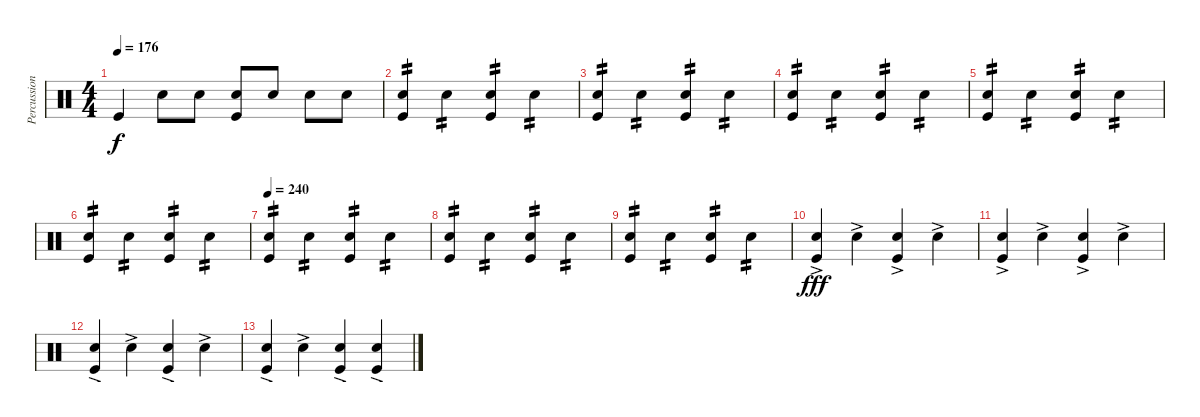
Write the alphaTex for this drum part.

\track ("Percussion" "Percussion") {instrument percussion}
\staff {score}
\articulation defaults
\ts (4 4)
\tempo 176
\clef neutral
\ks c "Kick (hit)".4{dy f} "Electric Snare (hit)".8 "Electric Snare (hit)".8
("Electric Snare (hit)" "Kick (hit)").8 "Electric Snare (hit)".8 "Electric Snare (hit)".8 "Electric Snare (hit)".8 |
("Electric Snare (hit)" "Kick (hit)").4{tp 2} "Electric Snare (hit)".4{tp 2} ("Electric Snare (hit)" "Kick (hit)").4{tp 2} "Electric Snare (hit)".4{tp 2} |
("Electric Snare (hit)" "Kick (hit)").4{tp 2} "Electric Snare (hit)".4{tp 2} ("Electric Snare (hit)" "Kick (hit)").4{tp 2} "Electric Snare (hit)".4{tp 2} |
("Electric Snare (hit)" "Kick (hit)").4{tp 2} "Electric Snare (hit)".4{tp 2} ("Electric Snare (hit)" "Kick (hit)").4{tp 2} "Electric Snare (hit)".4{tp 2} |
("Electric Snare (hit)" "Kick (hit)").4{tp 2} "Electric Snare (hit)".4{tp 2} ("Electric Snare (hit)" "Kick (hit)").4{tp 2} "Electric Snare (hit)".4{tp 2} |
("Electric Snare (hit)" "Kick (hit)").4{tp 2} "Electric Snare (hit)".4{tp 2} ("Electric Snare (hit)" "Kick (hit)").4{tp 2} "Electric Snare (hit)".4{tp 2} |
\tempo 240
("Electric Snare (hit)" "Kick (hit)").4{tp 2} "Electric Snare (hit)".4{tp 2} ("Electric Snare (hit)" "Kick (hit)").4{tp 2} "Electric Snare (hit)".4{tp 2} |
("Electric Snare (hit)" "Kick (hit)").4{tp 2} "Electric Snare (hit)".4{tp 2} ("Electric Snare (hit)" "Kick (hit)").4{tp 2} "Electric Snare (hit)".4{tp 2} |
("Electric Snare (hit)" "Kick (hit)").4{tp 2} "Electric Snare (hit)".4{tp 2} ("Electric Snare (hit)" "Kick (hit)").4{tp 2} "Electric Snare (hit)".4{tp 2} |
("Electric Snare (hit)"{ac} "Kick (hit)").4{dy fff} "Electric Snare (hit)"{ac}.4 ("Electric Snare (hit)"{ac} "Kick (hit)").4 "Electric Snare (hit)"{ac}.4 |
("Electric Snare (hit)"{ac} "Kick (hit)").4 "Electric Snare (hit)"{ac}.4 ("Electric Snare (hit)"{ac} "Kick (hit)").4 "Electric Snare (hit)"{ac}.4 |
("Electric Snare (hit)"{ac} "Kick (hit)").4 "Electric Snare (hit)"{ac}.4 ("Electric Snare (hit)"{ac} "Kick (hit)").4 "Electric Snare (hit)"{ac}.4 |
("Electric Snare (hit)"{ac} "Kick (hit)").4 "Electric Snare (hit)"{ac}.4 ("Electric Snare (hit)"{ac} "Kick (hit)").4 ("Electric Snare (hit)"{ac} "Kick (hit)"{ac}).4
